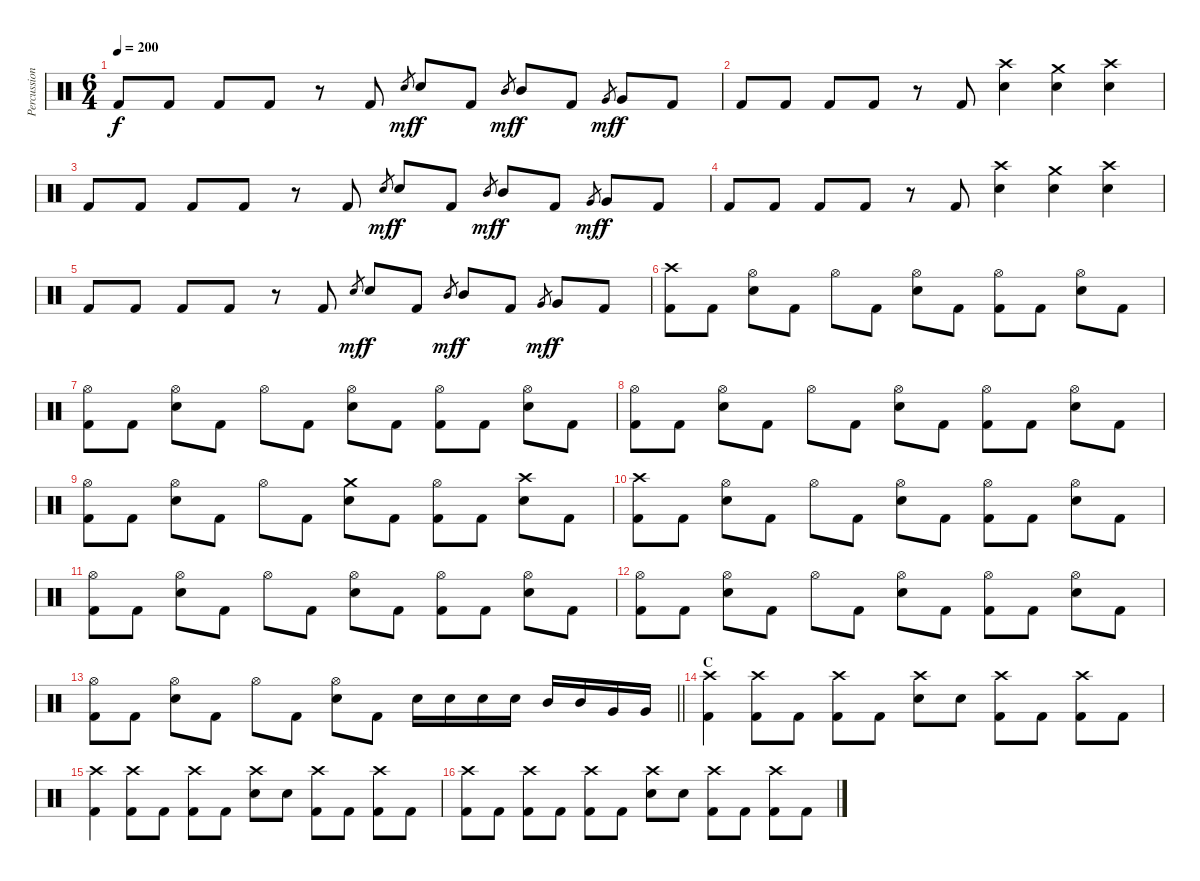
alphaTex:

\track ("Percussion" "Percussion") {instrument percussion}
\staff {score}
\articulation defaults
\ts (6 4)
\tempo 200
\clef neutral
\ks c "Kick (hit) 2".8{dy f} "Kick (hit) 2".8 "Kick (hit) 2".8 "Kick (hit) 2".8
r.8 "Kick (hit) 2".8 "Electric Snare (hit)".8{gr dy mf} "Electric Snare (hit)".8{dy f} "Kick (hit) 2".8 "Mid Tom (hit)".8{gr dy mf} "Mid Tom (hit)".8{dy f} "Kick (hit) 2".8 "Very Low Tom (hit)".8{gr dy mf} "Very Low Tom (hit)".8{dy f} "Kick (hit) 2".8 |
"Kick (hit) 2".8 "Kick (hit) 2".8 "Kick (hit) 2".8 "Kick (hit) 2".8 r.8 "Kick (hit) 2".8 ("Crash high (hit)" "Electric Snare (hit)").4 ("Crash medium (hit)" "Electric Snare (hit)").4 ("Crash high (hit)" "Electric Snare (hit)").4 |
"Kick (hit) 2".8 "Kick (hit) 2".8 "Kick (hit) 2".8 "Kick (hit) 2".8 r.8 "Kick (hit) 2".8 "Electric Snare (hit)".8{gr dy mf} "Electric Snare (hit)".8{dy f} "Kick (hit) 2".8 "Mid Tom (hit)".8{gr dy mf} "Mid Tom (hit)".8{dy f} "Kick (hit) 2".8 "Very Low Tom (hit)".8{gr dy mf} "Very Low Tom (hit)".8{dy f} "Kick (hit) 2".8 |
"Kick (hit) 2".8 "Kick (hit) 2".8 "Kick (hit) 2".8 "Kick (hit) 2".8 r.8 "Kick (hit) 2".8 ("Crash high (hit)" "Electric Snare (hit)").4 ("Crash medium (hit)" "Electric Snare (hit)").4 ("Crash high (hit)" "Electric Snare (hit)").4 |
"Kick (hit) 2".8 "Kick (hit) 2".8 "Kick (hit) 2".8 "Kick (hit) 2".8 r.8 "Kick (hit) 2".8 "Electric Snare (hit)".8{gr dy mf} "Electric Snare (hit)".8{dy f} "Kick (hit) 2".8 "Mid Tom (hit)".8{gr dy mf} "Mid Tom (hit)".8{dy f} "Kick (hit) 2".8 "Very Low Tom (hit)".8{gr dy mf} "Very Low Tom (hit)".8{dy f} "Kick (hit) 2".8 |
("Crash high (hit)" "Kick (hit) 2").8 "Kick (hit) 2".8 ("Hi-Hat (open)" "Electric Snare (hit)").8 "Kick (hit) 2".8 "Hi-Hat (open)".8 "Kick (hit) 2".8 ("Hi-Hat (open)" "Electric Snare (hit)").8 "Kick (hit) 2".8 ("Hi-Hat (open)" "Kick (hit) 2").8 "Kick (hit) 2".8 ("Hi-Hat (open)" "Electric Snare (hit)").8 "Kick (hit) 2".8 |
("Hi-Hat (open)" "Kick (hit) 2").8 "Kick (hit) 2".8 ("Hi-Hat (open)" "Electric Snare (hit)").8 "Kick (hit) 2".8 "Hi-Hat (open)".8 "Kick (hit) 2".8 ("Hi-Hat (open)" "Electric Snare (hit)").8 "Kick (hit) 2".8 ("Hi-Hat (open)" "Kick (hit) 2").8 "Kick (hit) 2".8 ("Hi-Hat (open)" "Electric Snare (hit)").8 "Kick (hit) 2".8 |
("Hi-Hat (open)" "Kick (hit) 2").8 "Kick (hit) 2".8 ("Hi-Hat (open)" "Electric Snare (hit)").8 "Kick (hit) 2".8 "Hi-Hat (open)".8 "Kick (hit) 2".8 ("Hi-Hat (open)" "Electric Snare (hit)").8 "Kick (hit) 2".8 ("Hi-Hat (open)" "Kick (hit) 2").8 "Kick (hit) 2".8 ("Hi-Hat (open)" "Electric Snare (hit)").8 "Kick (hit) 2".8 |
("Hi-Hat (open)" "Kick (hit) 2").8 "Kick (hit) 2".8 ("Hi-Hat (open)" "Electric Snare (hit)").8 "Kick (hit) 2".8 "Hi-Hat (open)".8 "Kick (hit) 2".8 ("Crash medium (hit)" "Electric Snare (hit)").8 "Kick (hit) 2".8 ("Hi-Hat (open)" "Kick (hit) 2").8 "Kick (hit) 2".8 ("Crash high (hit)" "Electric Snare (hit)").8 "Kick (hit) 2".8 |
("Crash high (hit)" "Kick (hit) 2").8 "Kick (hit) 2".8 ("Hi-Hat (open)" "Electric Snare (hit)").8 "Kick (hit) 2".8 "Hi-Hat (open)".8 "Kick (hit) 2".8 ("Hi-Hat (open)" "Electric Snare (hit)").8 "Kick (hit) 2".8 ("Hi-Hat (open)" "Kick (hit) 2").8 "Kick (hit) 2".8 ("Hi-Hat (open)" "Electric Snare (hit)").8 "Kick (hit) 2".8 |
("Hi-Hat (open)" "Kick (hit) 2").8 "Kick (hit) 2".8 ("Hi-Hat (open)" "Electric Snare (hit)").8 "Kick (hit) 2".8 "Hi-Hat (open)".8 "Kick (hit) 2".8 ("Hi-Hat (open)" "Electric Snare (hit)").8 "Kick (hit) 2".8 ("Hi-Hat (open)" "Kick (hit) 2").8 "Kick (hit) 2".8 ("Hi-Hat (open)" "Electric Snare (hit)").8 "Kick (hit) 2".8 |
("Hi-Hat (open)" "Kick (hit) 2").8 "Kick (hit) 2".8 ("Hi-Hat (open)" "Electric Snare (hit)").8 "Kick (hit) 2".8 "Hi-Hat (open)".8 "Kick (hit) 2".8 ("Hi-Hat (open)" "Electric Snare (hit)").8 "Kick (hit) 2".8 ("Hi-Hat (open)" "Kick (hit) 2").8 "Kick (hit) 2".8 ("Hi-Hat (open)" "Electric Snare (hit)").8 "Kick (hit) 2".8 |
\barLineRight lightlight
("Hi-Hat (open)" "Kick (hit) 2").8 "Kick (hit) 2".8 ("Hi-Hat (open)" "Electric Snare (hit)").8 "Kick (hit) 2".8 "Hi-Hat (open)".8 "Kick (hit) 2".8 ("Hi-Hat (open)" "Electric Snare (hit)").8 "Kick (hit) 2".8 "Electric Snare (hit)".16 "Electric Snare (hit)".16 "Electric Snare (hit)".16 "Electric Snare (hit)".16 "Mid Tom (hit)".16 "Mid Tom (hit)".16 "Very Low Tom (hit)".16 "Very Low Tom (hit)".16 |
\section ("" "C")
("Crash high (hit)" "Kick (hit) 2").4 ("Crash high (hit)" "Kick (hit) 2").8 "Kick (hit) 2".8 ("Crash high (hit)" "Kick (hit) 2").8 "Kick (hit) 2".8 ("Crash high (hit)" "Electric Snare (hit)").8 "Electric Snare (hit)".8 ("Crash high (hit)" "Kick (hit) 2").8 "Kick (hit) 2".8 ("Crash high (hit)" "Kick (hit) 2").8 "Kick (hit) 2".8 |
("Crash high (hit)" "Kick (hit) 2").4 ("Crash high (hit)" "Kick (hit) 2").8 "Kick (hit) 2".8 ("Crash high (hit)" "Kick (hit) 2").8 "Kick (hit) 2".8 ("Crash high (hit)" "Electric Snare (hit)").8 "Electric Snare (hit)".8 ("Crash high (hit)" "Kick (hit) 2").8 "Kick (hit) 2".8 ("Crash high (hit)" "Kick (hit) 2").8 "Kick (hit) 2".8 |
("Crash high (hit)" "Kick (hit) 2").8 "Kick (hit) 2".8 ("Crash high (hit)" "Kick (hit) 2").8 "Kick (hit) 2".8 ("Crash high (hit)" "Kick (hit) 2").8 "Kick (hit) 2".8 ("Crash high (hit)" "Electric Snare (hit)").8 "Electric Snare (hit)".8 ("Crash high (hit)" "Kick (hit) 2").8 "Kick (hit) 2".8 ("Crash high (hit)" "Kick (hit) 2").8 "Kick (hit) 2".8
